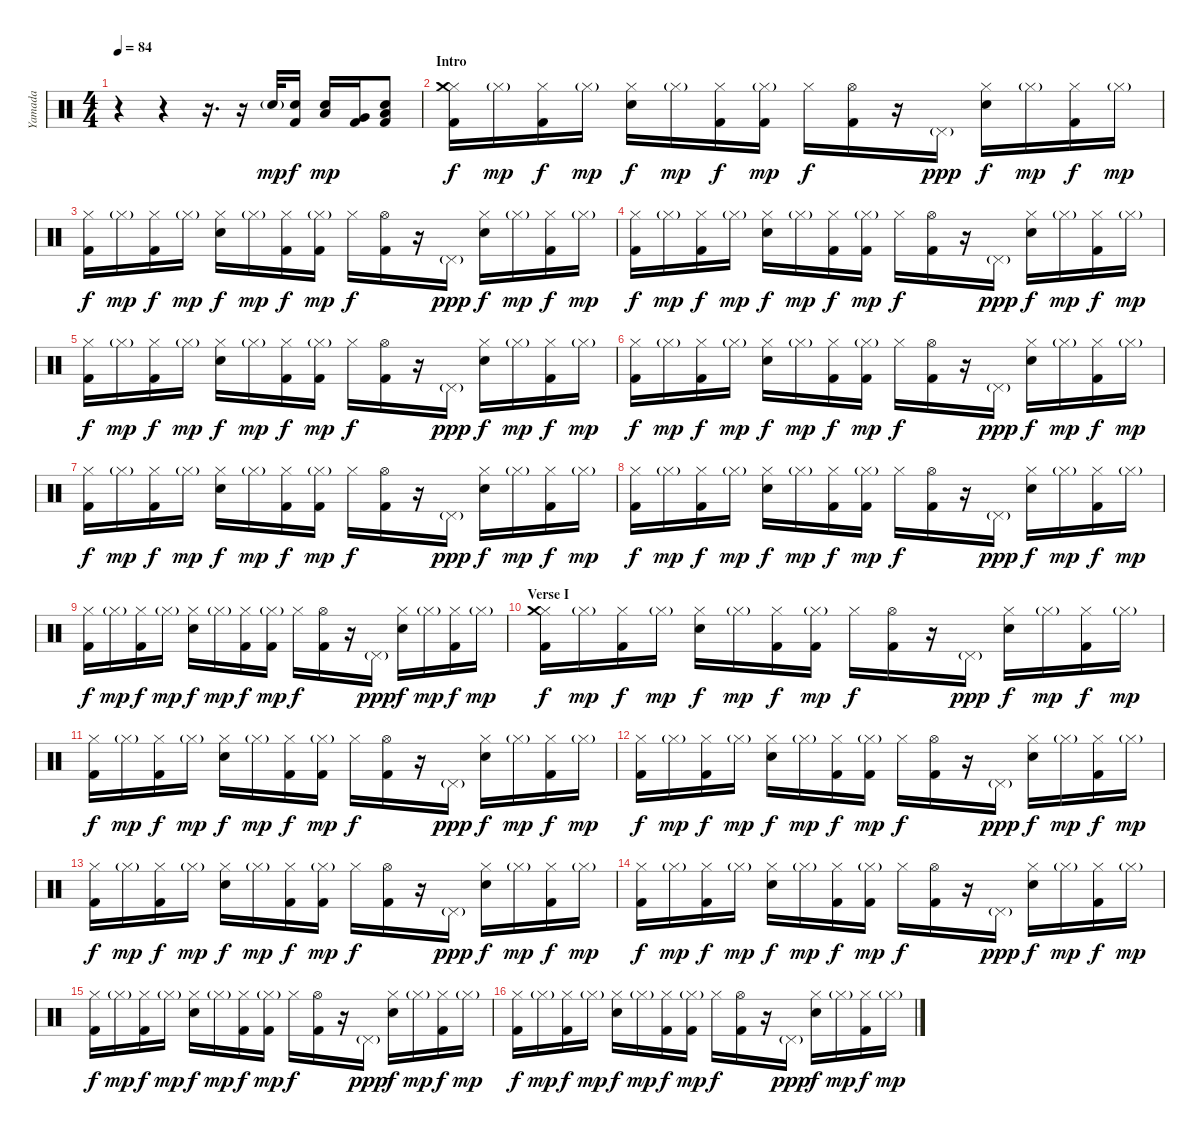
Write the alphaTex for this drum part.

\track ("Yamada" "Yamada") {instrument percussion}
\staff {score}
\articulation defaults
\ts (4 4)
\tempo 84
\clef neutral
\ks c
r.4{dy mp} r.4 r.16{d} r.16 "Electric Snare (hit)"{g}.32 ("Electric Snare (hit)" "Kick (hit) 2").16{dy f} ("Electric Snare (hit)" "Low Floor Tom (hit)").16{dy mp} ("Kick (hit) 2" "Very Low Tom (hit)").16 ("Electric Snare (hit)" "Kick (hit) 2" "Low Floor Tom (hit)").8 |
\section ("" "Intro")
("Hi-Hat (closed)" "Crash medium (hit)" "Kick (hit) 2").16{dy f} "Hi-Hat (closed)"{g}.16{dy mp} ("Hi-Hat (closed)" "Kick (hit) 2").16{dy f} "Hi-Hat (closed)"{g}.16{dy mp} ("Hi-Hat (closed)" "Electric Snare (hit)").16{dy f} "Hi-Hat (closed)"{g}.16{dy mp} ("Hi-Hat (closed)" "Kick (hit) 2").16{dy f} ("Hi-Hat (closed)"{g} "Kick (hit) 2").16{dy mp} "Hi-Hat (closed)".16{dy f} ("Hi-Hat (open)" "Kick (hit) 2").16 r.16 "Pedal Hi-Hat (hit)"{g}.16{dy ppp} ("Hi-Hat (closed)" "Electric Snare (hit)").16{dy f} "Hi-Hat (closed)"{g}.16{dy mp} ("Hi-Hat (closed)" "Kick (hit) 2").16{dy f} "Hi-Hat (closed)"{g}.16{dy mp} |
("Hi-Hat (closed)" "Kick (hit) 2").16{dy f} "Hi-Hat (closed)"{g}.16{dy mp} ("Hi-Hat (closed)" "Kick (hit) 2").16{dy f} "Hi-Hat (closed)"{g}.16{dy mp} ("Hi-Hat (closed)" "Electric Snare (hit)").16{dy f} "Hi-Hat (closed)"{g}.16{dy mp} ("Hi-Hat (closed)" "Kick (hit) 2").16{dy f} ("Hi-Hat (closed)"{g} "Kick (hit) 2").16{dy mp} "Hi-Hat (closed)".16{dy f} ("Hi-Hat (open)" "Kick (hit) 2").16 r.16 "Pedal Hi-Hat (hit)"{g}.16{dy ppp} ("Hi-Hat (closed)" "Electric Snare (hit)").16{dy f} "Hi-Hat (closed)"{g}.16{dy mp} ("Hi-Hat (closed)" "Kick (hit) 2").16{dy f} "Hi-Hat (closed)"{g}.16{dy mp} |
("Hi-Hat (closed)" "Kick (hit) 2").16{dy f} "Hi-Hat (closed)"{g}.16{dy mp} ("Hi-Hat (closed)" "Kick (hit) 2").16{dy f} "Hi-Hat (closed)"{g}.16{dy mp} ("Hi-Hat (closed)" "Electric Snare (hit)").16{dy f} "Hi-Hat (closed)"{g}.16{dy mp} ("Hi-Hat (closed)" "Kick (hit) 2").16{dy f} ("Hi-Hat (closed)"{g} "Kick (hit) 2").16{dy mp} "Hi-Hat (closed)".16{dy f} ("Hi-Hat (open)" "Kick (hit) 2").16 r.16 "Pedal Hi-Hat (hit)"{g}.16{dy ppp} ("Hi-Hat (closed)" "Electric Snare (hit)").16{dy f} "Hi-Hat (closed)"{g}.16{dy mp} ("Hi-Hat (closed)" "Kick (hit) 2").16{dy f} "Hi-Hat (closed)"{g}.16{dy mp} |
("Hi-Hat (closed)" "Kick (hit) 2").16{dy f} "Hi-Hat (closed)"{g}.16{dy mp} ("Hi-Hat (closed)" "Kick (hit) 2").16{dy f} "Hi-Hat (closed)"{g}.16{dy mp} ("Hi-Hat (closed)" "Electric Snare (hit)").16{dy f} "Hi-Hat (closed)"{g}.16{dy mp} ("Hi-Hat (closed)" "Kick (hit) 2").16{dy f} ("Hi-Hat (closed)"{g} "Kick (hit) 2").16{dy mp} "Hi-Hat (closed)".16{dy f} ("Hi-Hat (open)" "Kick (hit) 2").16 r.16 "Pedal Hi-Hat (hit)"{g}.16{dy ppp} ("Hi-Hat (closed)" "Electric Snare (hit)").16{dy f} "Hi-Hat (closed)"{g}.16{dy mp} ("Hi-Hat (closed)" "Kick (hit) 2").16{dy f} "Hi-Hat (closed)"{g}.16{dy mp} |
("Hi-Hat (closed)" "Kick (hit) 2").16{dy f} "Hi-Hat (closed)"{g}.16{dy mp} ("Hi-Hat (closed)" "Kick (hit) 2").16{dy f} "Hi-Hat (closed)"{g}.16{dy mp} ("Hi-Hat (closed)" "Electric Snare (hit)").16{dy f} "Hi-Hat (closed)"{g}.16{dy mp} ("Hi-Hat (closed)" "Kick (hit) 2").16{dy f} ("Hi-Hat (closed)"{g} "Kick (hit) 2").16{dy mp} "Hi-Hat (closed)".16{dy f} ("Hi-Hat (open)" "Kick (hit) 2").16 r.16 "Pedal Hi-Hat (hit)"{g}.16{dy ppp} ("Hi-Hat (closed)" "Electric Snare (hit)").16{dy f} "Hi-Hat (closed)"{g}.16{dy mp} ("Hi-Hat (closed)" "Kick (hit) 2").16{dy f} "Hi-Hat (closed)"{g}.16{dy mp} |
("Hi-Hat (closed)" "Kick (hit) 2").16{dy f} "Hi-Hat (closed)"{g}.16{dy mp} ("Hi-Hat (closed)" "Kick (hit) 2").16{dy f} "Hi-Hat (closed)"{g}.16{dy mp} ("Hi-Hat (closed)" "Electric Snare (hit)").16{dy f} "Hi-Hat (closed)"{g}.16{dy mp} ("Hi-Hat (closed)" "Kick (hit) 2").16{dy f} ("Hi-Hat (closed)"{g} "Kick (hit) 2").16{dy mp} "Hi-Hat (closed)".16{dy f} ("Hi-Hat (open)" "Kick (hit) 2").16 r.16 "Pedal Hi-Hat (hit)"{g}.16{dy ppp} ("Hi-Hat (closed)" "Electric Snare (hit)").16{dy f} "Hi-Hat (closed)"{g}.16{dy mp} ("Hi-Hat (closed)" "Kick (hit) 2").16{dy f} "Hi-Hat (closed)"{g}.16{dy mp} |
("Hi-Hat (closed)" "Kick (hit) 2").16{dy f} "Hi-Hat (closed)"{g}.16{dy mp} ("Hi-Hat (closed)" "Kick (hit) 2").16{dy f} "Hi-Hat (closed)"{g}.16{dy mp} ("Hi-Hat (closed)" "Electric Snare (hit)").16{dy f} "Hi-Hat (closed)"{g}.16{dy mp} ("Hi-Hat (closed)" "Kick (hit) 2").16{dy f} ("Hi-Hat (closed)"{g} "Kick (hit) 2").16{dy mp} "Hi-Hat (closed)".16{dy f} ("Hi-Hat (open)" "Kick (hit) 2").16 r.16 "Pedal Hi-Hat (hit)"{g}.16{dy ppp} ("Hi-Hat (closed)" "Electric Snare (hit)").16{dy f} "Hi-Hat (closed)"{g}.16{dy mp} ("Hi-Hat (closed)" "Kick (hit) 2").16{dy f} "Hi-Hat (closed)"{g}.16{dy mp} |
("Hi-Hat (closed)" "Kick (hit) 2").16{dy f} "Hi-Hat (closed)"{g}.16{dy mp} ("Hi-Hat (closed)" "Kick (hit) 2").16{dy f} "Hi-Hat (closed)"{g}.16{dy mp} ("Hi-Hat (closed)" "Electric Snare (hit)").16{dy f} "Hi-Hat (closed)"{g}.16{dy mp} ("Hi-Hat (closed)" "Kick (hit) 2").16{dy f} ("Hi-Hat (closed)"{g} "Kick (hit) 2").16{dy mp} "Hi-Hat (closed)".16{dy f} ("Hi-Hat (open)" "Kick (hit) 2").16 r.16 "Pedal Hi-Hat (hit)"{g}.16{dy ppp} ("Hi-Hat (closed)" "Electric Snare (hit)").16{dy f} "Hi-Hat (closed)"{g}.16{dy mp} ("Hi-Hat (closed)" "Kick (hit) 2").16{dy f} "Hi-Hat (closed)"{g}.16{dy mp} |
\section ("" "Verse I")
("Hi-Hat (closed)" "Crash medium (hit)" "Kick (hit) 2").16{dy f} "Hi-Hat (closed)"{g}.16{dy mp} ("Hi-Hat (closed)" "Kick (hit) 2").16{dy f} "Hi-Hat (closed)"{g}.16{dy mp} ("Hi-Hat (closed)" "Electric Snare (hit)").16{dy f} "Hi-Hat (closed)"{g}.16{dy mp} ("Hi-Hat (closed)" "Kick (hit) 2").16{dy f} ("Hi-Hat (closed)"{g} "Kick (hit) 2").16{dy mp} "Hi-Hat (closed)".16{dy f} ("Hi-Hat (open)" "Kick (hit) 2").16 r.16 "Pedal Hi-Hat (hit)"{g}.16{dy ppp} ("Hi-Hat (closed)" "Electric Snare (hit)").16{dy f} "Hi-Hat (closed)"{g}.16{dy mp} ("Hi-Hat (closed)" "Kick (hit) 2").16{dy f} "Hi-Hat (closed)"{g}.16{dy mp} |
("Hi-Hat (closed)" "Kick (hit) 2").16{dy f} "Hi-Hat (closed)"{g}.16{dy mp} ("Hi-Hat (closed)" "Kick (hit) 2").16{dy f} "Hi-Hat (closed)"{g}.16{dy mp} ("Hi-Hat (closed)" "Electric Snare (hit)").16{dy f} "Hi-Hat (closed)"{g}.16{dy mp} ("Hi-Hat (closed)" "Kick (hit) 2").16{dy f} ("Hi-Hat (closed)"{g} "Kick (hit) 2").16{dy mp} "Hi-Hat (closed)".16{dy f} ("Hi-Hat (open)" "Kick (hit) 2").16 r.16 "Pedal Hi-Hat (hit)"{g}.16{dy ppp} ("Hi-Hat (closed)" "Electric Snare (hit)").16{dy f} "Hi-Hat (closed)"{g}.16{dy mp} ("Hi-Hat (closed)" "Kick (hit) 2").16{dy f} "Hi-Hat (closed)"{g}.16{dy mp} |
("Hi-Hat (closed)" "Kick (hit) 2").16{dy f} "Hi-Hat (closed)"{g}.16{dy mp} ("Hi-Hat (closed)" "Kick (hit) 2").16{dy f} "Hi-Hat (closed)"{g}.16{dy mp} ("Hi-Hat (closed)" "Electric Snare (hit)").16{dy f} "Hi-Hat (closed)"{g}.16{dy mp} ("Hi-Hat (closed)" "Kick (hit) 2").16{dy f} ("Hi-Hat (closed)"{g} "Kick (hit) 2").16{dy mp} "Hi-Hat (closed)".16{dy f} ("Hi-Hat (open)" "Kick (hit) 2").16 r.16 "Pedal Hi-Hat (hit)"{g}.16{dy ppp} ("Hi-Hat (closed)" "Electric Snare (hit)").16{dy f} "Hi-Hat (closed)"{g}.16{dy mp} ("Hi-Hat (closed)" "Kick (hit) 2").16{dy f} "Hi-Hat (closed)"{g}.16{dy mp} |
("Hi-Hat (closed)" "Kick (hit) 2").16{dy f} "Hi-Hat (closed)"{g}.16{dy mp} ("Hi-Hat (closed)" "Kick (hit) 2").16{dy f} "Hi-Hat (closed)"{g}.16{dy mp} ("Hi-Hat (closed)" "Electric Snare (hit)").16{dy f} "Hi-Hat (closed)"{g}.16{dy mp} ("Hi-Hat (closed)" "Kick (hit) 2").16{dy f} ("Hi-Hat (closed)"{g} "Kick (hit) 2").16{dy mp} "Hi-Hat (closed)".16{dy f} ("Hi-Hat (open)" "Kick (hit) 2").16 r.16 "Pedal Hi-Hat (hit)"{g}.16{dy ppp} ("Hi-Hat (closed)" "Electric Snare (hit)").16{dy f} "Hi-Hat (closed)"{g}.16{dy mp} ("Hi-Hat (closed)" "Kick (hit) 2").16{dy f} "Hi-Hat (closed)"{g}.16{dy mp} |
("Hi-Hat (closed)" "Kick (hit) 2").16{dy f} "Hi-Hat (closed)"{g}.16{dy mp} ("Hi-Hat (closed)" "Kick (hit) 2").16{dy f} "Hi-Hat (closed)"{g}.16{dy mp} ("Hi-Hat (closed)" "Electric Snare (hit)").16{dy f} "Hi-Hat (closed)"{g}.16{dy mp} ("Hi-Hat (closed)" "Kick (hit) 2").16{dy f} ("Hi-Hat (closed)"{g} "Kick (hit) 2").16{dy mp} "Hi-Hat (closed)".16{dy f} ("Hi-Hat (open)" "Kick (hit) 2").16 r.16 "Pedal Hi-Hat (hit)"{g}.16{dy ppp} ("Hi-Hat (closed)" "Electric Snare (hit)").16{dy f} "Hi-Hat (closed)"{g}.16{dy mp} ("Hi-Hat (closed)" "Kick (hit) 2").16{dy f} "Hi-Hat (closed)"{g}.16{dy mp} |
("Hi-Hat (closed)" "Kick (hit) 2").16{dy f} "Hi-Hat (closed)"{g}.16{dy mp} ("Hi-Hat (closed)" "Kick (hit) 2").16{dy f} "Hi-Hat (closed)"{g}.16{dy mp} ("Hi-Hat (closed)" "Electric Snare (hit)").16{dy f} "Hi-Hat (closed)"{g}.16{dy mp} ("Hi-Hat (closed)" "Kick (hit) 2").16{dy f} ("Hi-Hat (closed)"{g} "Kick (hit) 2").16{dy mp} "Hi-Hat (closed)".16{dy f} ("Hi-Hat (open)" "Kick (hit) 2").16 r.16 "Pedal Hi-Hat (hit)"{g}.16{dy ppp} ("Hi-Hat (closed)" "Electric Snare (hit)").16{dy f} "Hi-Hat (closed)"{g}.16{dy mp} ("Hi-Hat (closed)" "Kick (hit) 2").16{dy f} "Hi-Hat (closed)"{g}.16{dy mp} |
("Hi-Hat (closed)" "Kick (hit) 2").16{dy f} "Hi-Hat (closed)"{g}.16{dy mp} ("Hi-Hat (closed)" "Kick (hit) 2").16{dy f} "Hi-Hat (closed)"{g}.16{dy mp} ("Hi-Hat (closed)" "Electric Snare (hit)").16{dy f} "Hi-Hat (closed)"{g}.16{dy mp} ("Hi-Hat (closed)" "Kick (hit) 2").16{dy f} ("Hi-Hat (closed)"{g} "Kick (hit) 2").16{dy mp} "Hi-Hat (closed)".16{dy f} ("Hi-Hat (open)" "Kick (hit) 2").16 r.16 "Pedal Hi-Hat (hit)"{g}.16{dy ppp} ("Hi-Hat (closed)" "Electric Snare (hit)").16{dy f} "Hi-Hat (closed)"{g}.16{dy mp} ("Hi-Hat (closed)" "Kick (hit) 2").16{dy f} "Hi-Hat (closed)"{g}.16{dy mp}
